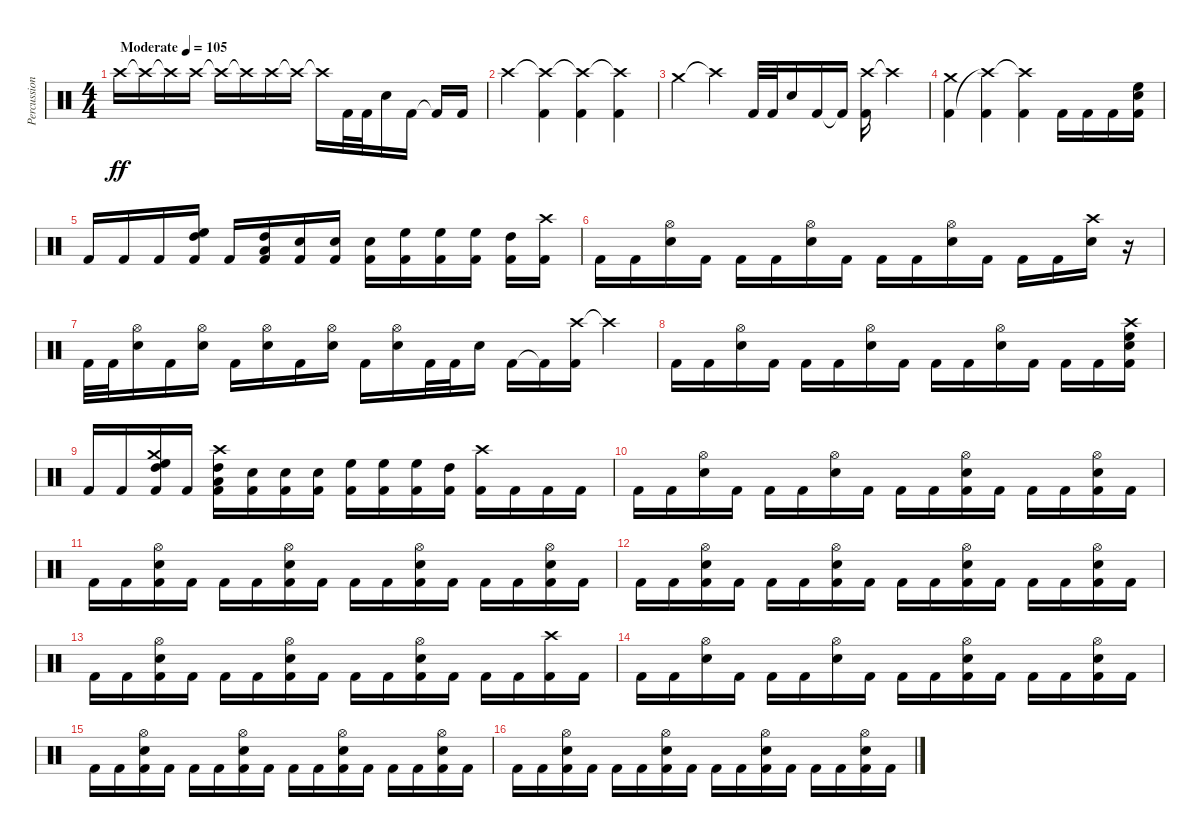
\track ("Percussion" "Percussion") {instrument percussion}
\staff {score}
\articulation defaults
\ts (4 4)
\tempo (105 "Moderate")
\clef neutral
\ks c "Crash high (hit)".16{dy ff} "Crash high (hit)"{t}.16 "Crash high (hit)"{t}.16 "Crash high (hit)".16 "Crash high (hit)"{t}.16 "Crash high (hit)"{t}.16 "Crash high (hit)".16 "Crash high (hit)"{t}.16 "Crash high (hit)"{t}.16 "Kick (hit) 2".32 "Kick (hit) 2".32 "Electric Snare (hit)".16 "Kick (hit) 2".16 "Kick (hit) 2"{t}.16 "Kick (hit) 2".16
|
"Crash high (hit)".4 ("Crash high (hit)"{t} "Kick (hit) 2").4 ("Crash high (hit)"{t} "Kick (hit) 2").4 ("Crash high (hit)"{t} "Kick (hit) 2").4 |
"Crash medium (hit)".4 "Crash high (hit)"{t}.4 "Kick (hit) 2".32 "Kick (hit) 2".32 "Electric Snare (hit)".16 "Kick (hit) 2".16 "Kick (hit) 2"{t}.16 ("Crash high (hit)" "Kick (hit) 2").16 "Crash high (hit)"{t}.4 |
("Crash medium (hit)" "Kick (hit) 2").4 ("Kick (hit) 2" "Crash high (hit)"{t}).4 ("Kick (hit) 2" "Crash high (hit)"{t}).4 "Kick (hit) 2".16 "Kick (hit) 2".16 "Kick (hit) 2".16 ("Kick (hit) 2" "Electric Snare (hit)" "High Floor Tom (hit)").16 |
"Kick (hit) 2".16 "Kick (hit) 2".16 "Kick (hit) 2".16 ("Kick (hit) 2" "High Floor Tom (hit)" "High Tom (hit)").16 "Kick (hit) 2".16 ("Kick (hit) 2" "High Tom (hit)" "Low Floor Tom (hit)").16 ("Electric Snare (hit)" "Kick (hit) 2").16 ("Electric Snare (hit)" "Kick (hit) 2").16 ("Electric Snare (hit)" "Kick (hit) 2").16 ("High Floor Tom (hit)" "Kick (hit) 2").16 ("High Floor Tom (hit)" "Kick (hit) 2").16 ("High Floor Tom (hit)" "Kick (hit) 2").16 ("High Tom (hit)" "Kick (hit) 2").16 ("Crash high (hit)" "Kick (hit) 2").16 |
"Kick (hit) 2".16 "Kick (hit) 2".16 ("Electric Snare (hit)" "Hi-Hat (open)").16 "Kick (hit) 2".16 "Kick (hit) 2".16 "Kick (hit) 2".16 ("Electric Snare (hit)" "Hi-Hat (open)").16 "Kick (hit) 2".16 "Kick (hit) 2".16 "Kick (hit) 2".16 ("Electric Snare (hit)" "Hi-Hat (open)").16 "Kick (hit) 2".16 "Kick (hit) 2".16 "Kick (hit) 2".16 ("Electric Snare (hit)" "Crash high (hit)").16 r.16 |
"Kick (hit) 2".32 "Kick (hit) 2".32 ("Electric Snare (hit)" "Hi-Hat (open)").16 "Kick (hit) 2".16 ("Electric Snare (hit)" "Hi-Hat (open)").16 "Kick (hit) 2".16 ("Electric Snare (hit)" "Hi-Hat (open)").16 "Kick (hit) 2".16 ("Electric Snare (hit)" "Hi-Hat (open)").16 "Kick (hit) 2".16 ("Electric Snare (hit)" "Hi-Hat (open)").16 "Kick (hit) 2".32 "Kick (hit) 2".32 "Electric Snare (hit)".16 "Kick (hit) 2".16 "Kick (hit) 2"{t}.16 ("Crash high (hit)" "Kick (hit) 2").16 "Crash high (hit)"{t}.4 |
"Kick (hit) 2".16 "Kick (hit) 2".16 ("Electric Snare (hit)" "Hi-Hat (open)").16 "Kick (hit) 2".16 "Kick (hit) 2".16 "Kick (hit) 2".16 ("Electric Snare (hit)" "Hi-Hat (open)").16 "Kick (hit) 2".16 "Kick (hit) 2".16 "Kick (hit) 2".16 ("Electric Snare (hit)" "Hi-Hat (open)").16 "Kick (hit) 2".16 "Kick (hit) 2".16 "Kick (hit) 2".16 ("Kick (hit) 2" "Electric Snare (hit)" "High Floor Tom (hit)" "Crash high (hit)").16 |
"Kick (hit) 2".16 "Kick (hit) 2".16 ("Kick (hit) 2" "Crash medium (hit)" "High Floor Tom (hit)" "High Tom (hit)").16 "Kick (hit) 2".16 ("Kick (hit) 2" "High Tom (hit)" "Low Floor Tom (hit)" "Crash high (hit)").16 ("Electric Snare (hit)" "Kick (hit) 2").16 ("Electric Snare (hit)" "Kick (hit) 2").16 ("Electric Snare (hit)" "Kick (hit) 2").16 ("High Floor Tom (hit)" "Kick (hit) 2").16 ("High Floor Tom (hit)" "Kick (hit) 2").16 ("High Floor Tom (hit)" "Kick (hit) 2").16 ("High Tom (hit)" "Kick (hit) 2").16 ("Crash high (hit)" "Kick (hit) 2").16 "Kick (hit) 2".16 "Kick (hit) 2".16 "Kick (hit) 2".16 |
"Kick (hit) 2".16 "Kick (hit) 2".16 ("Electric Snare (hit)" "Hi-Hat (open)").16 "Kick (hit) 2".16 "Kick (hit) 2".16 "Kick (hit) 2".16 ("Electric Snare (hit)" "Hi-Hat (open)").16 "Kick (hit) 2".16 "Kick (hit) 2".16 "Kick (hit) 2".16 ("Electric Snare (hit)" "Hi-Hat (open)" "Kick (hit) 2").16 "Kick (hit) 2".16 "Kick (hit) 2".16 "Kick (hit) 2".16 ("Electric Snare (hit)" "Kick (hit) 2" "Hi-Hat (open)").16 "Kick (hit) 2".16 |
"Kick (hit) 2".16 "Kick (hit) 2".16 ("Electric Snare (hit)" "Kick (hit) 2" "Hi-Hat (open)").16 "Kick (hit) 2".16 "Kick (hit) 2".16 "Kick (hit) 2".16 ("Electric Snare (hit)" "Hi-Hat (open)" "Kick (hit) 2").16 "Kick (hit) 2".16 "Kick (hit) 2".16 "Kick (hit) 2".16 ("Electric Snare (hit)" "Hi-Hat (open)" "Kick (hit) 2").16 "Kick (hit) 2".16 "Kick (hit) 2".16 "Kick (hit) 2".16 ("Electric Snare (hit)" "Kick (hit) 2" "Hi-Hat (open)").16 "Kick (hit) 2".16 |
"Kick (hit) 2".16 "Kick (hit) 2".16 ("Electric Snare (hit)" "Kick (hit) 2" "Hi-Hat (open)").16 "Kick (hit) 2".16 "Kick (hit) 2".16 "Kick (hit) 2".16 ("Electric Snare (hit)" "Hi-Hat (open)" "Kick (hit) 2").16 "Kick (hit) 2".16 "Kick (hit) 2".16 "Kick (hit) 2".16 ("Electric Snare (hit)" "Hi-Hat (open)" "Kick (hit) 2").16 "Kick (hit) 2".16 "Kick (hit) 2".16 "Kick (hit) 2".16 ("Electric Snare (hit)" "Kick (hit) 2" "Hi-Hat (open)").16 "Kick (hit) 2".16 |
"Kick (hit) 2".16 "Kick (hit) 2".16 ("Electric Snare (hit)" "Kick (hit) 2" "Hi-Hat (open)").16 "Kick (hit) 2".16 "Kick (hit) 2".16 "Kick (hit) 2".16 ("Electric Snare (hit)" "Hi-Hat (open)" "Kick (hit) 2").16 "Kick (hit) 2".16 "Kick (hit) 2".16 "Kick (hit) 2".16 ("Electric Snare (hit)" "Hi-Hat (open)" "Kick (hit) 2").16 "Kick (hit) 2".16 "Kick (hit) 2".16 "Kick (hit) 2".16 ("Kick (hit) 2" "Crash high (hit)").16 "Kick (hit) 2".16 |
"Kick (hit) 2".16 "Kick (hit) 2".16 ("Electric Snare (hit)" "Hi-Hat (open)").16 "Kick (hit) 2".16 "Kick (hit) 2".16 "Kick (hit) 2".16 ("Electric Snare (hit)" "Hi-Hat (open)").16 "Kick (hit) 2".16 "Kick (hit) 2".16 "Kick (hit) 2".16 ("Electric Snare (hit)" "Hi-Hat (open)" "Kick (hit) 2").16 "Kick (hit) 2".16 "Kick (hit) 2".16 "Kick (hit) 2".16 ("Electric Snare (hit)" "Kick (hit) 2" "Hi-Hat (open)").16 "Kick (hit) 2".16 |
"Kick (hit) 2".16 "Kick (hit) 2".16 ("Electric Snare (hit)" "Kick (hit) 2" "Hi-Hat (open)").16 "Kick (hit) 2".16 "Kick (hit) 2".16 "Kick (hit) 2".16 ("Electric Snare (hit)" "Hi-Hat (open)" "Kick (hit) 2").16 "Kick (hit) 2".16 "Kick (hit) 2".16 "Kick (hit) 2".16 ("Electric Snare (hit)" "Hi-Hat (open)" "Kick (hit) 2").16 "Kick (hit) 2".16 "Kick (hit) 2".16 "Kick (hit) 2".16 ("Electric Snare (hit)" "Kick (hit) 2" "Hi-Hat (open)").16 "Kick (hit) 2".16 |
"Kick (hit) 2".16 "Kick (hit) 2".16 ("Electric Snare (hit)" "Kick (hit) 2" "Hi-Hat (open)").16 "Kick (hit) 2".16 "Kick (hit) 2".16 "Kick (hit) 2".16 ("Electric Snare (hit)" "Hi-Hat (open)" "Kick (hit) 2").16 "Kick (hit) 2".16 "Kick (hit) 2".16 "Kick (hit) 2".16 ("Electric Snare (hit)" "Hi-Hat (open)" "Kick (hit) 2").16 "Kick (hit) 2".16 "Kick (hit) 2".16 "Kick (hit) 2".16 ("Electric Snare (hit)" "Kick (hit) 2" "Hi-Hat (open)").16 "Kick (hit) 2".16
